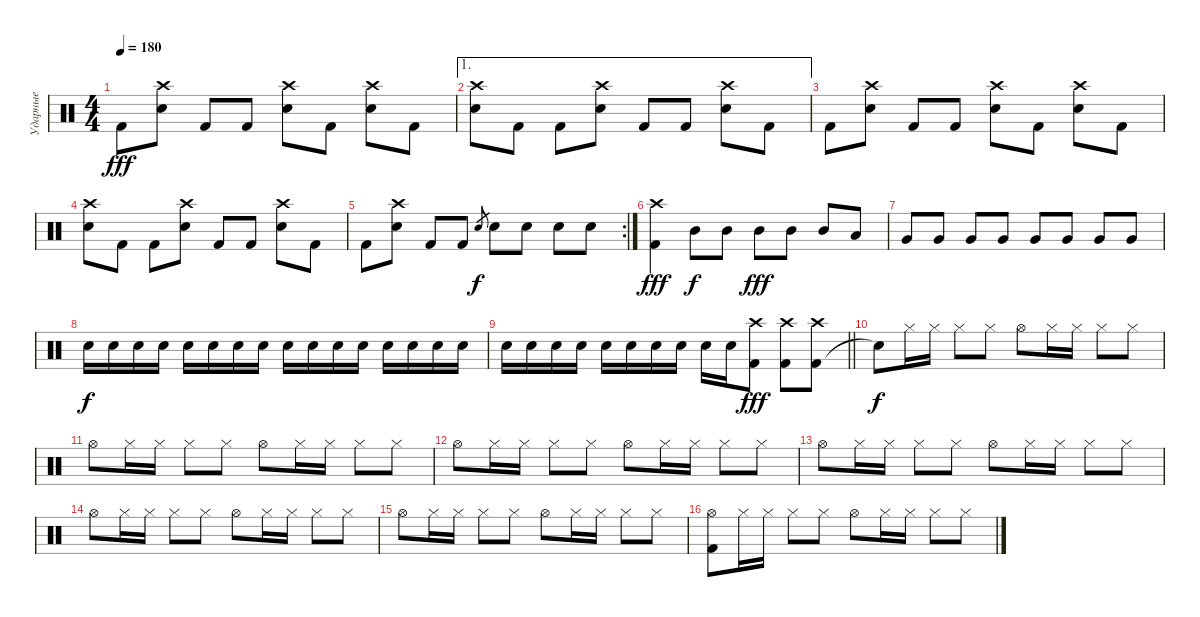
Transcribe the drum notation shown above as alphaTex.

\track ("Ударные" "Ударные") {instrument percussion}
\staff
\articulation defaults
\ts (4 4)
\tempo 180
\clef neutral
\ks c "Kick (hit) 2".8{dy fff}
("Snare (hit) 2" "Crash high (hit)").8 "Kick (hit) 2".8 "Kick (hit) 2".8 ("Snare (hit) 2" "Crash high (hit)").8 "Kick (hit) 2".8 ("Snare (hit) 2" "Crash high (hit)").8 "Kick (hit) 2".8 |
\ae 1
("Snare (hit) 2" "Crash high (hit)").8 "Kick (hit) 2".8 "Kick (hit) 2".8 ("Snare (hit) 2" "Crash high (hit)").8 "Kick (hit) 2".8 "Kick (hit) 2".8 ("Snare (hit) 2" "Crash high (hit)").8 "Kick (hit) 2".8 |
"Kick (hit) 2".8 ("Snare (hit) 2" "Crash high (hit)").8 "Kick (hit) 2".8 "Kick (hit) 2".8 ("Snare (hit) 2" "Crash high (hit)").8 "Kick (hit) 2".8 ("Snare (hit) 2" "Crash high (hit)").8 "Kick (hit) 2".8 |
("Snare (hit) 2" "Crash high (hit)").8 "Kick (hit) 2".8 "Kick (hit) 2".8 ("Snare (hit) 2" "Crash high (hit)").8 "Kick (hit) 2".8 "Kick (hit) 2".8 ("Snare (hit) 2" "Crash high (hit)").8 "Kick (hit) 2".8 |
\rc 2 "Kick (hit) 2".8
("Snare (hit) 2" "Crash high (hit)").8 "Kick (hit) 2".8 "Kick (hit) 2".8 "Electric Snare (hit)".8{gr dy f} "Electric Snare (hit)".8 "Electric Snare (hit)".8 "Electric Snare (hit)".8 "Electric Snare (hit)".8 |
("Kick (hit) 2" "Crash high (hit)").4{dy fff} "Mid Tom (hit)".8{dy f} "Mid Tom (hit)".8 "Mid Tom (hit)".8{dy fff} "Mid Tom (hit)".8 "Mid Tom (hit)".8 "Low Tom (hit)".8 |
"Very Low Tom (hit)".8 "Very Low Tom (hit)".8 "Very Low Tom (hit)".8 "Very Low Tom (hit)".8 "Very Low Tom (hit)".8 "Very Low Tom (hit)".8 "Very Low Tom (hit)".8 "Very Low Tom (hit)".8 |
"Snare (hit) 2".16{dy f} "Snare (hit) 2".16 "Snare (hit) 2".16 "Snare (hit) 2".16 "Snare (hit) 2".16 "Snare (hit) 2".16 "Snare (hit) 2".16 "Snare (hit) 2".16 "Snare (hit) 2".16 "Snare (hit) 2".16 "Snare (hit) 2".16 "Snare (hit) 2".16 "Snare (hit) 2".16 "Snare (hit) 2".16 "Snare (hit) 2".16 "Snare (hit) 2".16 |
\barLineRight lightlight "Snare (hit) 2".16 "Snare (hit) 2".16 "Snare (hit) 2".16 "Snare (hit) 2".16 "Snare (hit) 2".16 "Snare (hit) 2".16 "Snare (hit) 2".16 "Snare (hit) 2".16 "Snare (hit) 2".16 "Snare (hit) 2".16
("Kick (hit) 2" "Crash high (hit)").8{dy fff} ("Kick (hit) 2" "Crash high (hit)").8 ("Kick (hit) 2" "Crash high (hit)").8 |
"Snare (hit)"{t}.8{dy f} "Hi-Hat (closed)".16 "Hi-Hat (closed)".16 "Hi-Hat (closed)".8 "Hi-Hat (closed)".8 "Hi-Hat (open)".8 "Hi-Hat (closed)".16 "Hi-Hat (closed)".16 "Hi-Hat (closed)".8 "Hi-Hat (closed)".8 |
"Hi-Hat (open)".8 "Hi-Hat (closed)".16 "Hi-Hat (closed)".16 "Hi-Hat (closed)".8 "Hi-Hat (closed)".8 "Hi-Hat (open)".8 "Hi-Hat (closed)".16 "Hi-Hat (closed)".16 "Hi-Hat (closed)".8 "Hi-Hat (closed)".8 |
"Hi-Hat (open)".8 "Hi-Hat (closed)".16 "Hi-Hat (closed)".16 "Hi-Hat (closed)".8 "Hi-Hat (closed)".8 "Hi-Hat (open)".8 "Hi-Hat (closed)".16 "Hi-Hat (closed)".16 "Hi-Hat (closed)".8 "Hi-Hat (closed)".8 |
"Hi-Hat (open)".8 "Hi-Hat (closed)".16 "Hi-Hat (closed)".16 "Hi-Hat (closed)".8 "Hi-Hat (closed)".8 "Hi-Hat (open)".8 "Hi-Hat (closed)".16 "Hi-Hat (closed)".16 "Hi-Hat (closed)".8 "Hi-Hat (closed)".8 |
"Hi-Hat (open)".8 "Hi-Hat (closed)".16 "Hi-Hat (closed)".16 "Hi-Hat (closed)".8 "Hi-Hat (closed)".8 "Hi-Hat (open)".8 "Hi-Hat (closed)".16 "Hi-Hat (closed)".16 "Hi-Hat (closed)".8 "Hi-Hat (closed)".8 |
"Hi-Hat (open)".8 "Hi-Hat (closed)".16 "Hi-Hat (closed)".16 "Hi-Hat (closed)".8 "Hi-Hat (closed)".8 "Hi-Hat (open)".8 "Hi-Hat (closed)".16 "Hi-Hat (closed)".16 "Hi-Hat (closed)".8 "Hi-Hat (closed)".8 |
("Kick (hit) 2" "Hi-Hat (open)").8 "Hi-Hat (closed)".16 "Hi-Hat (closed)".16 "Hi-Hat (closed)".8 "Hi-Hat (closed)".8 "Hi-Hat (open)".8 "Hi-Hat (closed)".16 "Hi-Hat (closed)".16 "Hi-Hat (closed)".8 "Hi-Hat (closed)".8
